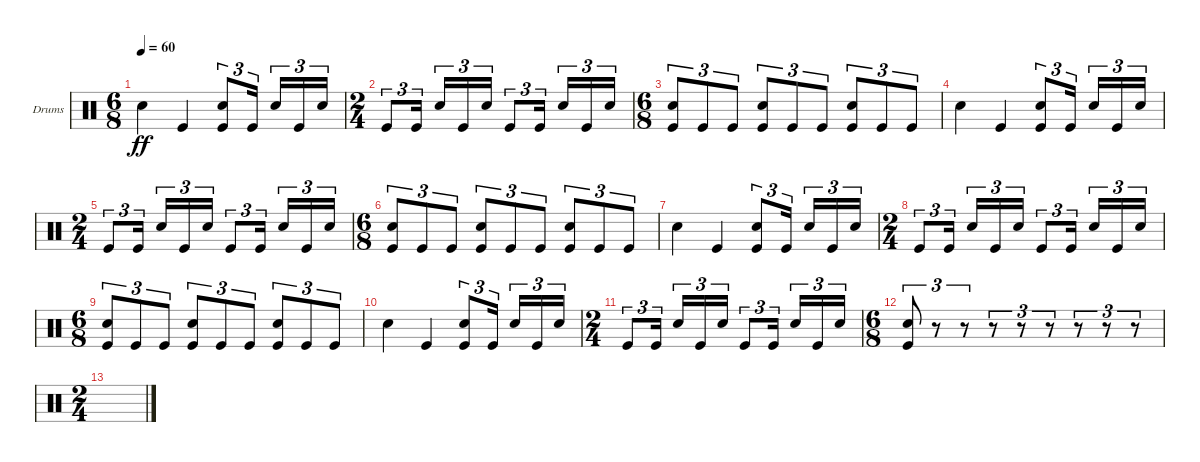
\defaultSystemsLayout 4
\bracketExtendMode groupsimilarinstruments
\firstSystemTrackNameOrientation horizontal
\otherSystemsTrackNameOrientation horizontal
\track ("Drumkit" "Drums") {instrument percussion}
\staff {score}
\articulation defaults
\ts (6 8)
\tempo 60
\clef neutral
\ks c "Snare (hit) 2".4{dy ff} "Kick (hit)".4
("Kick (hit)" "Snare (hit) 2").8{tu (3 2)} "Kick (hit)".16{tu (3 2)} "Snare (hit) 2".16{tu (3 2)} "Kick (hit)".16{tu (3 2)} "Snare (hit) 2".16{tu (3 2)} |
\ts (2 4)
"Kick (hit)".8{tu (3 2)} "Kick (hit)".16{tu (3 2)} "Snare (hit) 2".16{tu (3 2)} "Kick (hit)".16{tu (3 2)} "Snare (hit) 2".16{tu (3 2)} "Kick (hit)".8{tu (3 2)} "Kick (hit)".16{tu (3 2)} "Snare (hit) 2".16{tu (3 2)} "Kick (hit)".16{tu (3 2)} "Snare (hit) 2".16{tu (3 2)} |
\ts (6 8)
("Kick (hit)" "Snare (hit) 2").8{tu (3 2)} "Kick (hit)".8{tu (3 2)} "Kick (hit)".8{tu (3 2)} ("Kick (hit)" "Snare (hit) 2").8{tu (3 2)} "Kick (hit)".8{tu (3 2)} "Kick (hit)".8{tu (3 2)} ("Kick (hit)" "Snare (hit) 2").8{tu (3 2)} "Kick (hit)".8{tu (3 2)} "Kick (hit)".8{tu (3 2)} |
"Snare (hit) 2".4 "Kick (hit)".4 ("Kick (hit)" "Snare (hit) 2").8{tu (3 2)} "Kick (hit)".16{tu (3 2)} "Snare (hit) 2".16{tu (3 2)} "Kick (hit)".16{tu (3 2)} "Snare (hit) 2".16{tu (3 2)} |
\ts (2 4)
"Kick (hit)".8{tu (3 2)} "Kick (hit)".16{tu (3 2)} "Snare (hit) 2".16{tu (3 2)} "Kick (hit)".16{tu (3 2)} "Snare (hit) 2".16{tu (3 2)} "Kick (hit)".8{tu (3 2)} "Kick (hit)".16{tu (3 2)} "Snare (hit) 2".16{tu (3 2)} "Kick (hit)".16{tu (3 2)} "Snare (hit) 2".16{tu (3 2)} |
\ts (6 8)
("Kick (hit)" "Snare (hit) 2").8{tu (3 2)} "Kick (hit)".8{tu (3 2)} "Kick (hit)".8{tu (3 2)} ("Kick (hit)" "Snare (hit) 2").8{tu (3 2)} "Kick (hit)".8{tu (3 2)} "Kick (hit)".8{tu (3 2)} ("Kick (hit)" "Snare (hit) 2").8{tu (3 2)} "Kick (hit)".8{tu (3 2)} "Kick (hit)".8{tu (3 2)} |
"Snare (hit) 2".4 "Kick (hit)".4 ("Kick (hit)" "Snare (hit) 2").8{tu (3 2)} "Kick (hit)".16{tu (3 2)} "Snare (hit) 2".16{tu (3 2)} "Kick (hit)".16{tu (3 2)} "Snare (hit) 2".16{tu (3 2)} |
\ts (2 4)
"Kick (hit)".8{tu (3 2)} "Kick (hit)".16{tu (3 2)} "Snare (hit) 2".16{tu (3 2)} "Kick (hit)".16{tu (3 2)} "Snare (hit) 2".16{tu (3 2)} "Kick (hit)".8{tu (3 2)} "Kick (hit)".16{tu (3 2)} "Snare (hit) 2".16{tu (3 2)} "Kick (hit)".16{tu (3 2)} "Snare (hit) 2".16{tu (3 2)} |
\ts (6 8)
("Kick (hit)" "Snare (hit) 2").8{tu (3 2)} "Kick (hit)".8{tu (3 2)} "Kick (hit)".8{tu (3 2)} ("Kick (hit)" "Snare (hit) 2").8{tu (3 2)} "Kick (hit)".8{tu (3 2)} "Kick (hit)".8{tu (3 2)} ("Kick (hit)" "Snare (hit) 2").8{tu (3 2)} "Kick (hit)".8{tu (3 2)} "Kick (hit)".8{tu (3 2)} |
"Snare (hit) 2".4 "Kick (hit)".4 ("Kick (hit)" "Snare (hit) 2").8{tu (3 2)} "Kick (hit)".16{tu (3 2)} "Snare (hit) 2".16{tu (3 2)} "Kick (hit)".16{tu (3 2)} "Snare (hit) 2".16{tu (3 2)} |
\ts (2 4)
"Kick (hit)".8{tu (3 2)} "Kick (hit)".16{tu (3 2)} "Snare (hit) 2".16{tu (3 2)} "Kick (hit)".16{tu (3 2)} "Snare (hit) 2".16{tu (3 2)} "Kick (hit)".8{tu (3 2)} "Kick (hit)".16{tu (3 2)} "Snare (hit) 2".16{tu (3 2)} "Kick (hit)".16{tu (3 2)} "Snare (hit) 2".16{tu (3 2)} |
\ts (6 8)
("Kick (hit)" "Snare (hit) 2").8{tu (3 2)} r.8{tu (3 2)} r.8{tu (3 2)} r.8{tu (3 2)} r.8{tu (3 2)} r.8{tu (3 2)} r.8{tu (3 2)} r.8{tu (3 2)} r.8{tu (3 2)} |
\ts (2 4)
